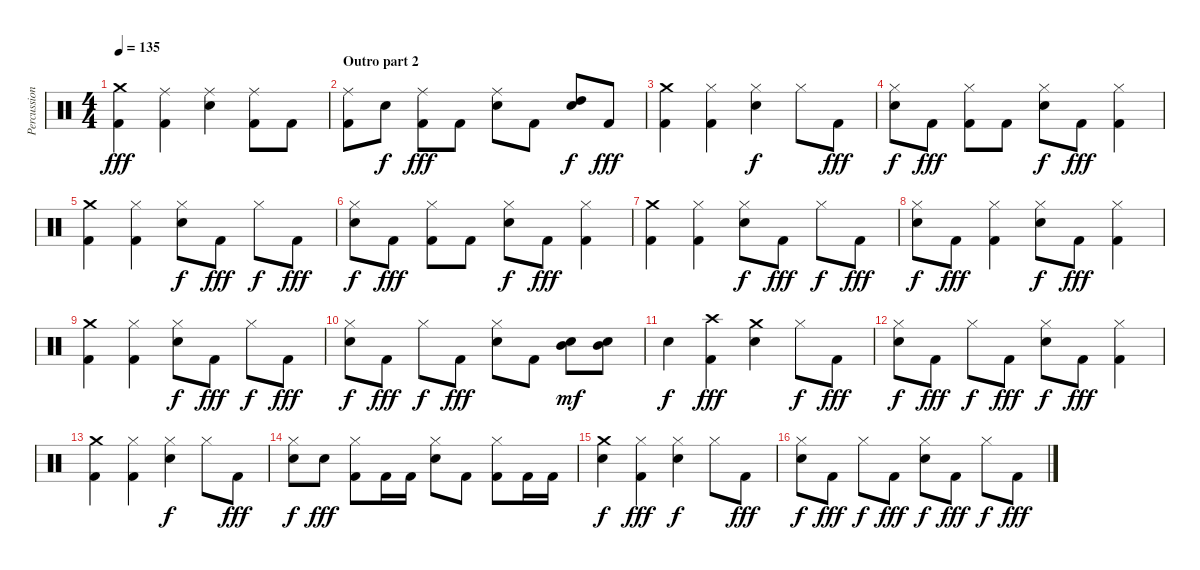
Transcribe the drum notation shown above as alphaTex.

\track ("Percussion" "Percussion") {instrument percussion}
\staff {score}
\articulation defaults
\ts (4 4)
\tempo 135
\clef neutral
\ks c
("Crash medium (hit)" "Kick (hit) 2").4{dy fff} ("Ride (middle)" "Kick (hit) 2").4 ("Ride (middle)" "Electric Snare (hit)").4 ("Ride (middle)" "Kick (hit) 2").8 "Kick (hit) 2".8 |
\section ("" "Outro part 2")
("Ride (middle)" "Kick (hit) 2").8 "Electric Snare (hit)".8{dy f} ("Ride (middle)" "Kick (hit) 2").8{dy fff} "Kick (hit) 2".8 ("Ride (middle)" "Electric Snare (hit)").8 "Kick (hit) 2".8 ("High Tom (hit)" "Electric Snare (hit)").8{dy f} "Kick (hit) 2".8{dy fff} |
("Crash medium (hit)" "Kick (hit) 2").4 ("Hi-Hat (closed)" "Kick (hit) 2").4 ("Hi-Hat (closed)" "Electric Snare (hit)").4{dy f} "Hi-Hat (closed)".8 "Kick (hit) 2".8{dy fff} |
("Hi-Hat (closed)" "Electric Snare (hit)").8{dy f} "Kick (hit) 2".8{dy fff} ("Hi-Hat (closed)" "Kick (hit) 2").8 "Kick (hit) 2".8 ("Hi-Hat (closed)" "Electric Snare (hit)").8{dy f} "Kick (hit) 2".8{dy fff} ("Hi-Hat (closed)" "Kick (hit) 2").4 |
("Crash medium (hit)" "Kick (hit) 2").4 ("Hi-Hat (closed)" "Kick (hit) 2").4 ("Hi-Hat (closed)" "Electric Snare (hit)").8{dy f} "Kick (hit) 2".8{dy fff} "Hi-Hat (closed)".8{dy f} "Kick (hit) 2".8{dy fff} |
("Hi-Hat (closed)" "Electric Snare (hit)").8{dy f} "Kick (hit) 2".8{dy fff} ("Hi-Hat (closed)" "Kick (hit) 2").8 "Kick (hit) 2".8 ("Hi-Hat (closed)" "Electric Snare (hit)").8{dy f} "Kick (hit) 2".8{dy fff} ("Hi-Hat (closed)" "Kick (hit) 2").4 |
("Crash medium (hit)" "Kick (hit) 2").4 ("Hi-Hat (closed)" "Kick (hit) 2").4 ("Hi-Hat (closed)" "Electric Snare (hit)").8{dy f} "Kick (hit) 2".8{dy fff} "Hi-Hat (closed)".8{dy f} "Kick (hit) 2".8{dy fff} |
("Hi-Hat (closed)" "Electric Snare (hit)").8{dy f} "Kick (hit) 2".8{dy fff} ("Hi-Hat (closed)" "Kick (hit) 2").4 ("Hi-Hat (closed)" "Electric Snare (hit)").8{dy f} "Kick (hit) 2".8{dy fff} ("Hi-Hat (closed)" "Kick (hit) 2").4 |
("Crash medium (hit)" "Kick (hit) 2").4 ("Hi-Hat (closed)" "Kick (hit) 2").4 ("Hi-Hat (closed)" "Electric Snare (hit)").8{dy f} "Kick (hit) 2".8{dy fff} "Hi-Hat (closed)".8{dy f} "Kick (hit) 2".8{dy fff} |
("Hi-Hat (closed)" "Electric Snare (hit)").8{dy f} "Kick (hit) 2".8{dy fff} "Hi-Hat (closed)".8{dy f} "Kick (hit) 2".8{dy fff} ("Hi-Hat (closed)" "Electric Snare (hit)").8 "Kick (hit) 2".8 ("Mid Tom (hit)" "Electric Snare (hit)").8{dy mf} ("Mid Tom (hit)" "Electric Snare (hit)").8 |
"Electric Snare (hit)".4{dy f} ("Crash high (hit)" "Kick (hit) 2").4{dy fff} ("Crash medium (hit)" "Electric Snare (hit)").4 "Hi-Hat (closed)".8{dy f} "Kick (hit) 2".8{dy fff} |
("Hi-Hat (closed)" "Electric Snare (hit)").8{dy f} "Kick (hit) 2".8{dy fff} "Hi-Hat (closed)".8{dy f} "Kick (hit) 2".8{dy fff} ("Hi-Hat (closed)" "Electric Snare (hit)").8{dy f} "Kick (hit) 2".8{dy fff} ("Hi-Hat (closed)" "Kick (hit) 2").4 |
("Crash medium (hit)" "Kick (hit) 2").4 ("Hi-Hat (closed)" "Kick (hit) 2").4 ("Hi-Hat (closed)" "Electric Snare (hit)").4{dy f} "Hi-Hat (closed)".8 "Kick (hit) 2".8{dy fff} |
("Hi-Hat (closed)" "Electric Snare (hit)").8{dy f} "Electric Snare (hit)".8{dy fff} ("Hi-Hat (closed)" "Kick (hit) 2").8 "Kick (hit) 2".16 "Kick (hit) 2".16 ("Hi-Hat (closed)" "Electric Snare (hit)").8 "Kick (hit) 2".8 ("Hi-Hat (closed)" "Kick (hit) 2").8 "Kick (hit) 2".16 "Kick (hit) 2".16 |
("Crash medium (hit)" "Electric Snare (hit)").4{dy f} ("Hi-Hat (closed)" "Kick (hit) 2").4{dy fff} ("Hi-Hat (closed)" "Electric Snare (hit)").4{dy f} "Hi-Hat (closed)".8 "Kick (hit) 2".8{dy fff} |
("Hi-Hat (closed)" "Electric Snare (hit)").8{dy f} "Kick (hit) 2".8{dy fff} "Hi-Hat (closed)".8{dy f} "Kick (hit) 2".8{dy fff} ("Hi-Hat (closed)" "Electric Snare (hit)").8{dy f} "Kick (hit) 2".8{dy fff} "Hi-Hat (closed)".8{dy f} "Kick (hit) 2".8{dy fff}
